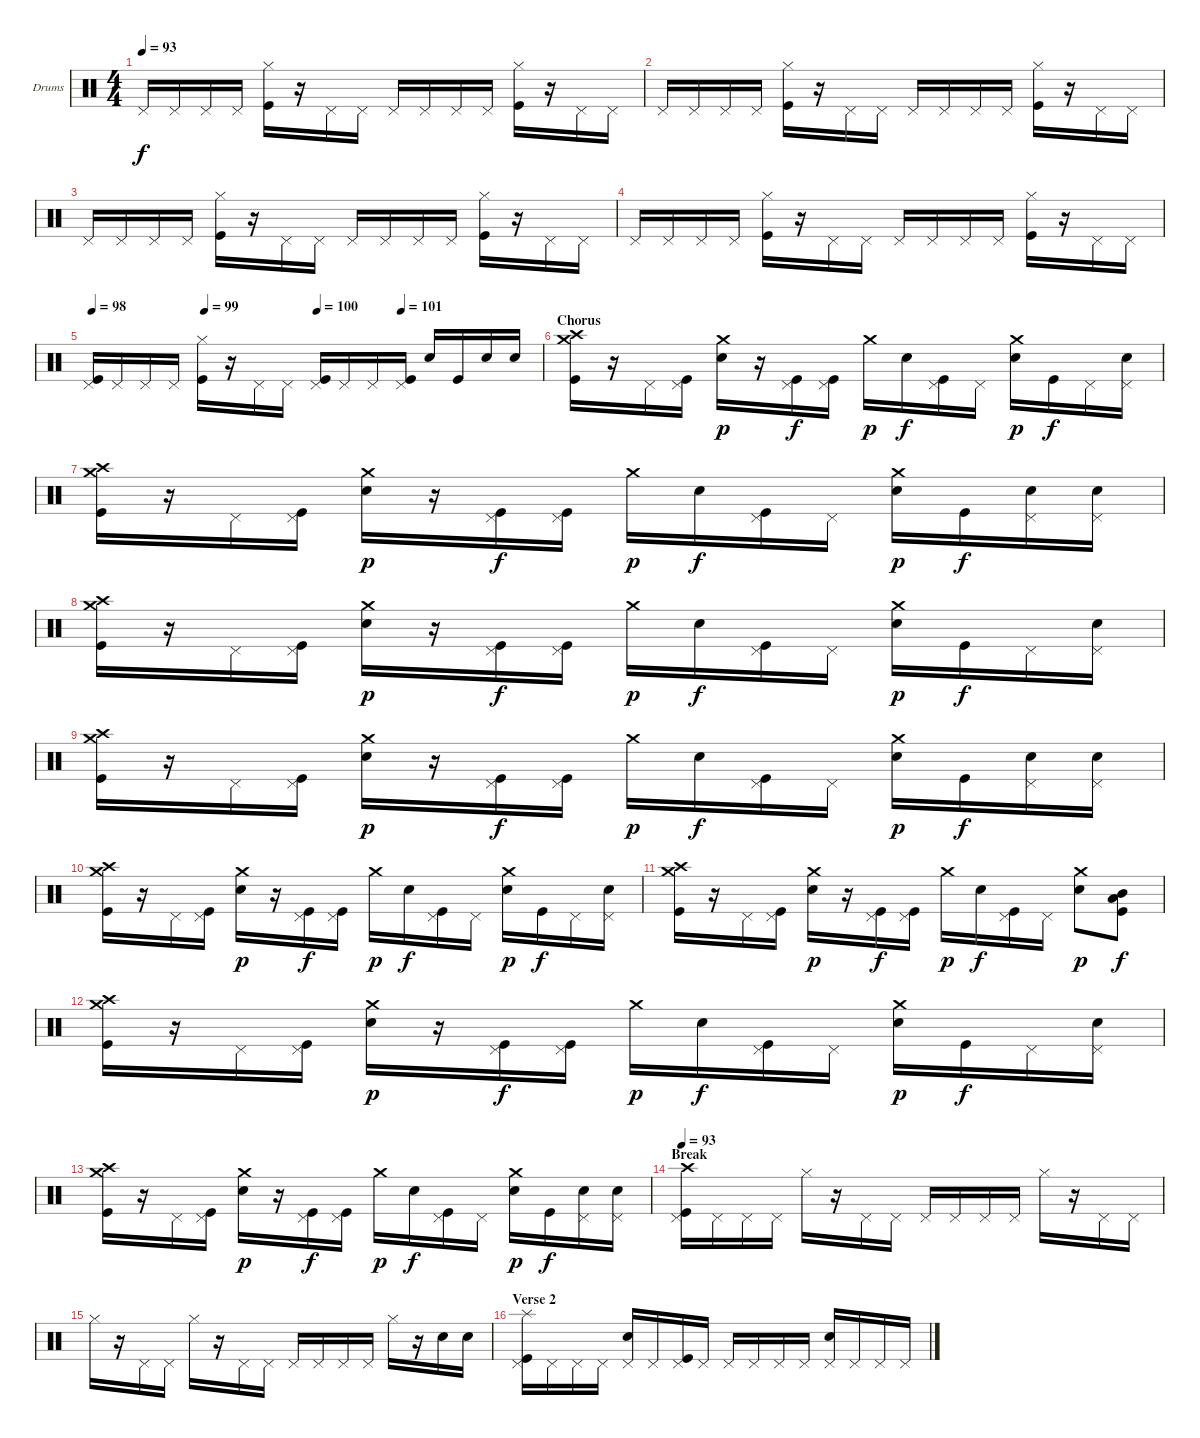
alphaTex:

\bracketExtendMode groupsimilarinstruments
\firstSystemTrackNameOrientation horizontal
\otherSystemsTrackNameOrientation horizontal
\track ("Drumkit" "Drums") {instrument percussion}
\staff {score}
\articulation defaults
\ts (4 4)
\tempo 93
\clef neutral
\ks c "Pedal Hi-Hat (hit)".16{dy f} "Pedal Hi-Hat (hit)".16 "Pedal Hi-Hat (hit)".16 "Pedal Hi-Hat (hit)".16
("Hi-Hat (closed)" "Kick (hit)").16 r.16 "Pedal Hi-Hat (hit)".16 "Pedal Hi-Hat (hit)".16 "Pedal Hi-Hat (hit)".16 "Pedal Hi-Hat (hit)".16 "Pedal Hi-Hat (hit)".16 "Pedal Hi-Hat (hit)".16 ("Hi-Hat (closed)" "Kick (hit)").16 r.16 "Pedal Hi-Hat (hit)".16 "Pedal Hi-Hat (hit)".16 |
"Pedal Hi-Hat (hit)".16 "Pedal Hi-Hat (hit)".16 "Pedal Hi-Hat (hit)".16 "Pedal Hi-Hat (hit)".16 ("Hi-Hat (closed)" "Kick (hit)").16 r.16 "Pedal Hi-Hat (hit)".16 "Pedal Hi-Hat (hit)".16 "Pedal Hi-Hat (hit)".16 "Pedal Hi-Hat (hit)".16 "Pedal Hi-Hat (hit)".16 "Pedal Hi-Hat (hit)".16 ("Hi-Hat (closed)" "Kick (hit)").16 r.16 "Pedal Hi-Hat (hit)".16 "Pedal Hi-Hat (hit)".16 |
"Pedal Hi-Hat (hit)".16 "Pedal Hi-Hat (hit)".16 "Pedal Hi-Hat (hit)".16 "Pedal Hi-Hat (hit)".16 ("Hi-Hat (closed)" "Kick (hit)").16 r.16 "Pedal Hi-Hat (hit)".16 "Pedal Hi-Hat (hit)".16 "Pedal Hi-Hat (hit)".16 "Pedal Hi-Hat (hit)".16 "Pedal Hi-Hat (hit)".16 "Pedal Hi-Hat (hit)".16 ("Hi-Hat (closed)" "Kick (hit)").16 r.16 "Pedal Hi-Hat (hit)".16 "Pedal Hi-Hat (hit)".16 |
"Pedal Hi-Hat (hit)".16 "Pedal Hi-Hat (hit)".16 "Pedal Hi-Hat (hit)".16 "Pedal Hi-Hat (hit)".16 ("Hi-Hat (closed)" "Kick (hit)").16 r.16 "Pedal Hi-Hat (hit)".16 "Pedal Hi-Hat (hit)".16 "Pedal Hi-Hat (hit)".16 "Pedal Hi-Hat (hit)".16 "Pedal Hi-Hat (hit)".16 "Pedal Hi-Hat (hit)".16 ("Hi-Hat (closed)" "Kick (hit)").16 r.16 "Pedal Hi-Hat (hit)".16 "Pedal Hi-Hat (hit)".16 |
\tempo 98
\tempo (99 0.25)
\tempo (100 0.5)
\tempo (101 0.6875)
("Pedal Hi-Hat (hit)" "Kick (hit)").16 "Pedal Hi-Hat (hit)".16 "Pedal Hi-Hat (hit)".16 "Pedal Hi-Hat (hit)".16 ("Hi-Hat (closed)" "Kick (hit)").16 r.16 "Pedal Hi-Hat (hit)".16 "Pedal Hi-Hat (hit)".16 ("Pedal Hi-Hat (hit)" "Kick (hit)").16 "Pedal Hi-Hat (hit)".16 "Pedal Hi-Hat (hit)".16 ("Pedal Hi-Hat (hit)" "Kick (hit)").16 "Snare (hit) 2".16 "Kick (hit)".16 "Snare (hit) 2".16 "Snare (hit) 2".16 |
\section ("" "Chorus")
("Crash high (hit)" "Crash medium (hit)" "Kick (hit)").16 r.16 "Pedal Hi-Hat (hit)".16 ("Pedal Hi-Hat (hit)" "Kick (hit)").16 ("Crash medium (hit)" "Snare (hit) 2").16{dy p} r.16 ("Pedal Hi-Hat (hit)" "Kick (hit)").16{dy f} ("Pedal Hi-Hat (hit)" "Kick (hit)").16 "Crash medium (hit)".16{dy p} "Snare (hit) 2".16{dy f} ("Pedal Hi-Hat (hit)" "Kick (hit)").16 "Pedal Hi-Hat (hit)".16 ("Crash medium (hit)" "Snare (hit) 2").16{dy p} "Kick (hit)".16{dy f} "Pedal Hi-Hat (hit)".16 ("Pedal Hi-Hat (hit)" "Snare (hit) 2").16 |
("Crash high (hit)" "Crash medium (hit)" "Kick (hit)").16 r.16 "Pedal Hi-Hat (hit)".16 ("Pedal Hi-Hat (hit)" "Kick (hit)").16 ("Crash medium (hit)" "Snare (hit) 2").16{dy p} r.16 ("Pedal Hi-Hat (hit)" "Kick (hit)").16{dy f} ("Pedal Hi-Hat (hit)" "Kick (hit)").16 "Crash medium (hit)".16{dy p} "Snare (hit) 2".16{dy f} ("Pedal Hi-Hat (hit)" "Kick (hit)").16 "Pedal Hi-Hat (hit)".16 ("Crash medium (hit)" "Snare (hit) 2").16{dy p} "Kick (hit)".16{dy f} ("Pedal Hi-Hat (hit)" "Snare (hit) 2").16 ("Pedal Hi-Hat (hit)" "Snare (hit) 2").16 |
("Crash high (hit)" "Crash medium (hit)" "Kick (hit)").16 r.16 "Pedal Hi-Hat (hit)".16 ("Pedal Hi-Hat (hit)" "Kick (hit)").16 ("Crash medium (hit)" "Snare (hit) 2").16{dy p} r.16 ("Pedal Hi-Hat (hit)" "Kick (hit)").16{dy f} ("Pedal Hi-Hat (hit)" "Kick (hit)").16 "Crash medium (hit)".16{dy p} "Snare (hit) 2".16{dy f} ("Pedal Hi-Hat (hit)" "Kick (hit)").16 "Pedal Hi-Hat (hit)".16 ("Crash medium (hit)" "Snare (hit) 2").16{dy p} "Kick (hit)".16{dy f} "Pedal Hi-Hat (hit)".16 ("Pedal Hi-Hat (hit)" "Snare (hit) 2").16 |
("Crash high (hit)" "Crash medium (hit)" "Kick (hit)").16 r.16 "Pedal Hi-Hat (hit)".16 ("Pedal Hi-Hat (hit)" "Kick (hit)").16 ("Crash medium (hit)" "Snare (hit) 2").16{dy p} r.16 ("Pedal Hi-Hat (hit)" "Kick (hit)").16{dy f} ("Pedal Hi-Hat (hit)" "Kick (hit)").16 "Crash medium (hit)".16{dy p} "Snare (hit) 2".16{dy f} ("Pedal Hi-Hat (hit)" "Kick (hit)").16 "Pedal Hi-Hat (hit)".16 ("Crash medium (hit)" "Snare (hit) 2").16{dy p} "Kick (hit)".16{dy f} ("Pedal Hi-Hat (hit)" "Snare (hit) 2").16 ("Pedal Hi-Hat (hit)" "Snare (hit) 2").16 |
("Crash high (hit)" "Crash medium (hit)" "Kick (hit)").16 r.16 "Pedal Hi-Hat (hit)".16 ("Pedal Hi-Hat (hit)" "Kick (hit)").16 ("Crash medium (hit)" "Snare (hit) 2").16{dy p} r.16 ("Pedal Hi-Hat (hit)" "Kick (hit)").16{dy f} ("Pedal Hi-Hat (hit)" "Kick (hit)").16 "Crash medium (hit)".16{dy p} "Snare (hit) 2".16{dy f} ("Pedal Hi-Hat (hit)" "Kick (hit)").16 "Pedal Hi-Hat (hit)".16 ("Crash medium (hit)" "Snare (hit) 2").16{dy p} "Kick (hit)".16{dy f} "Pedal Hi-Hat (hit)".16 ("Pedal Hi-Hat (hit)" "Snare (hit) 2").16 |
("Crash high (hit)" "Crash medium (hit)" "Kick (hit)").16 r.16 "Pedal Hi-Hat (hit)".16 ("Pedal Hi-Hat (hit)" "Kick (hit)").16 ("Crash medium (hit)" "Snare (hit) 2").16{dy p} r.16 ("Pedal Hi-Hat (hit)" "Kick (hit)").16{dy f} ("Pedal Hi-Hat (hit)" "Kick (hit)").16 "Crash medium (hit)".16{dy p} "Snare (hit) 2".16{dy f} ("Pedal Hi-Hat (hit)" "Kick (hit)").16 "Pedal Hi-Hat (hit)".16 ("Crash medium (hit)" "Snare (hit) 2").8{dy p} ("Low Tom (hit)" "Mid Tom (hit)" "Kick (hit)").8{dy f} |
("Crash high (hit)" "Crash medium (hit)" "Kick (hit)").16 r.16 "Pedal Hi-Hat (hit)".16 ("Pedal Hi-Hat (hit)" "Kick (hit)").16 ("Crash medium (hit)" "Snare (hit) 2").16{dy p} r.16 ("Pedal Hi-Hat (hit)" "Kick (hit)").16{dy f} ("Pedal Hi-Hat (hit)" "Kick (hit)").16 "Crash medium (hit)".16{dy p} "Snare (hit) 2".16{dy f} ("Pedal Hi-Hat (hit)" "Kick (hit)").16 "Pedal Hi-Hat (hit)".16 ("Crash medium (hit)" "Snare (hit) 2").16{dy p} "Kick (hit)".16{dy f} "Pedal Hi-Hat (hit)".16 ("Pedal Hi-Hat (hit)" "Snare (hit) 2").16 |
("Crash high (hit)" "Crash medium (hit)" "Kick (hit)").16 r.16 "Pedal Hi-Hat (hit)".16 ("Pedal Hi-Hat (hit)" "Kick (hit)").16 ("Crash medium (hit)" "Snare (hit) 2").16{dy p} r.16 ("Pedal Hi-Hat (hit)" "Kick (hit)").16{dy f} ("Pedal Hi-Hat (hit)" "Kick (hit)").16 "Crash medium (hit)".16{dy p} "Snare (hit) 2".16{dy f} ("Pedal Hi-Hat (hit)" "Kick (hit)").16 "Pedal Hi-Hat (hit)".16 ("Crash medium (hit)" "Snare (hit) 2").16{dy p} "Kick (hit)".16{dy f} ("Pedal Hi-Hat (hit)" "Snare (hit) 2").16 ("Pedal Hi-Hat (hit)" "Snare (hit) 2").16 |
\section ("" "Break")
\tempo 93
("Pedal Hi-Hat (hit)" "Crash high (hit)" "Kick (hit)").16 "Pedal Hi-Hat (hit)".16 "Pedal Hi-Hat (hit)".16 "Pedal Hi-Hat (hit)".16 "Hi-Hat (closed)".16 r.16 "Pedal Hi-Hat (hit)".16 "Pedal Hi-Hat (hit)".16 "Pedal Hi-Hat (hit)".16 "Pedal Hi-Hat (hit)".16 "Pedal Hi-Hat (hit)".16 "Pedal Hi-Hat (hit)".16 "Hi-Hat (closed)".16 r.16 "Pedal Hi-Hat (hit)".16 "Pedal Hi-Hat (hit)".16 |
"Hi-Hat (closed)".16 r.16 "Pedal Hi-Hat (hit)".16 "Pedal Hi-Hat (hit)".16 "Hi-Hat (closed)".16 r.16 "Pedal Hi-Hat (hit)".16 "Pedal Hi-Hat (hit)".16 "Pedal Hi-Hat (hit)".16 "Pedal Hi-Hat (hit)".16 "Pedal Hi-Hat (hit)".16 "Pedal Hi-Hat (hit)".16 "Hi-Hat (closed)".16 r.16 "Snare (hit) 2".16 "Snare (hit) 2".16 |
\section ("" "Verse 2")
("Pedal Hi-Hat (hit)" "Splash (hit)" "Kick (hit)").16 "Pedal Hi-Hat (hit)".16 "Pedal Hi-Hat (hit)".16 "Pedal Hi-Hat (hit)".16 ("Pedal Hi-Hat (hit)" "Snare (hit) 2").16 "Pedal Hi-Hat (hit)".16 ("Pedal Hi-Hat (hit)" "Kick (hit)").16 "Pedal Hi-Hat (hit)".16 "Pedal Hi-Hat (hit)".16 "Pedal Hi-Hat (hit)".16 "Pedal Hi-Hat (hit)".16 "Pedal Hi-Hat (hit)".16 ("Pedal Hi-Hat (hit)" "Snare (hit) 2").16 "Pedal Hi-Hat (hit)".16 "Pedal Hi-Hat (hit)".16 "Pedal Hi-Hat (hit)".16
